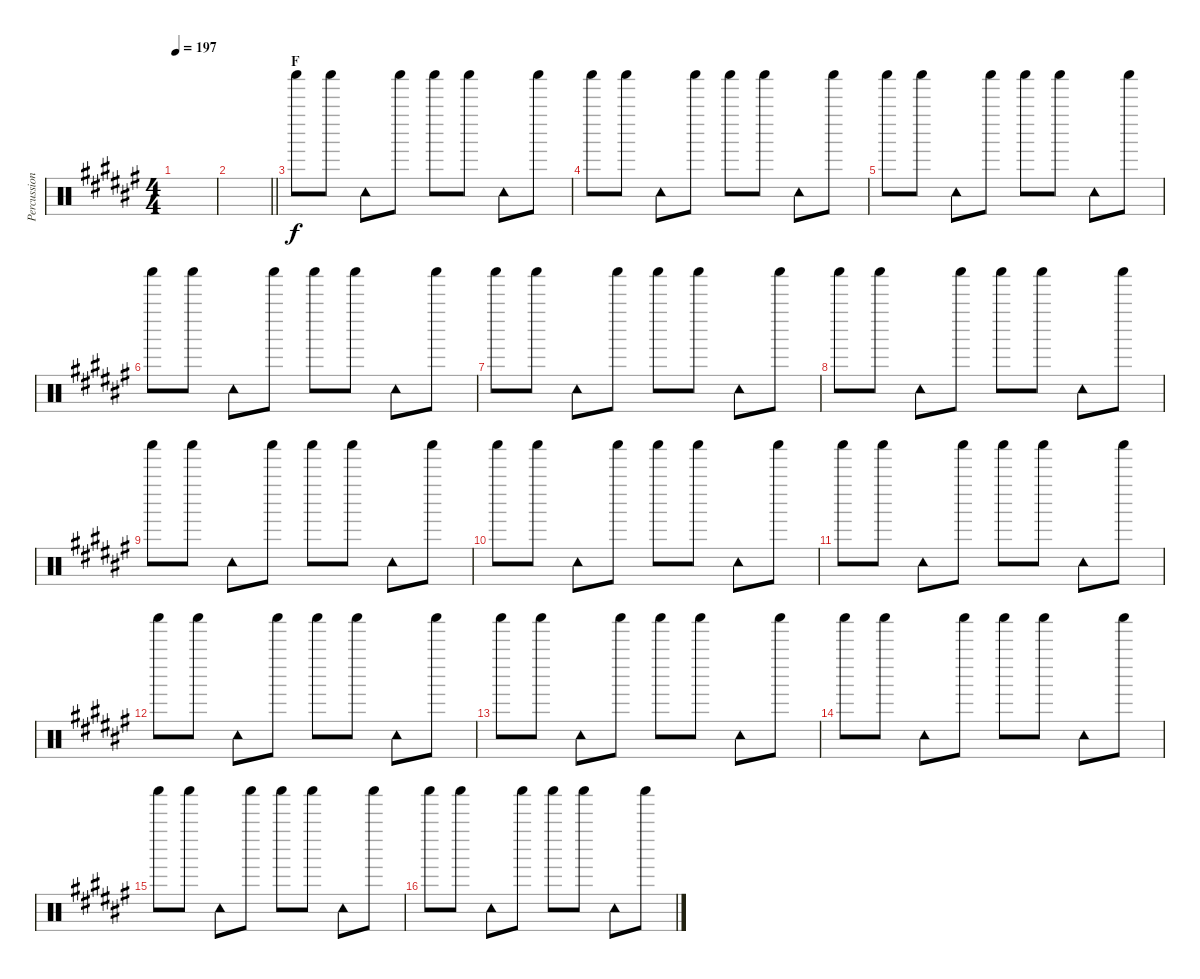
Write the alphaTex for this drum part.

\track ("Percussion (Tainaka Ritsu)" "Percussion") {instrument percussion}
\staff {score}
\articulation defaults
\ts (4 4)
\tempo 197
\clef neutral
\ks f#
|
\barLineRight lightlight
|
\section ("" "F")
"Shaker (hit)".8 "Shaker (hit)".8 "Tambourine (hit)".8 "Shaker (hit)".8 "Shaker (hit)".8 "Shaker (hit)".8 "Tambourine (hit)".8 "Shaker (hit)".8 |
"Shaker (hit)".8 "Shaker (hit)".8 "Tambourine (hit)".8 "Shaker (hit)".8 "Shaker (hit)".8 "Shaker (hit)".8 "Tambourine (hit)".8 "Shaker (hit)".8 |
"Shaker (hit)".8 "Shaker (hit)".8 "Tambourine (hit)".8 "Shaker (hit)".8 "Shaker (hit)".8 "Shaker (hit)".8 "Tambourine (hit)".8 "Shaker (hit)".8 |
"Shaker (hit)".8 "Shaker (hit)".8 "Tambourine (hit)".8 "Shaker (hit)".8 "Shaker (hit)".8 "Shaker (hit)".8 "Tambourine (hit)".8 "Shaker (hit)".8 |
"Shaker (hit)".8 "Shaker (hit)".8 "Tambourine (hit)".8 "Shaker (hit)".8 "Shaker (hit)".8 "Shaker (hit)".8 "Tambourine (hit)".8 "Shaker (hit)".8 |
"Shaker (hit)".8 "Shaker (hit)".8 "Tambourine (hit)".8 "Shaker (hit)".8 "Shaker (hit)".8 "Shaker (hit)".8 "Tambourine (hit)".8 "Shaker (hit)".8 |
"Shaker (hit)".8 "Shaker (hit)".8 "Tambourine (hit)".8 "Shaker (hit)".8 "Shaker (hit)".8 "Shaker (hit)".8 "Tambourine (hit)".8 "Shaker (hit)".8 |
"Shaker (hit)".8 "Shaker (hit)".8 "Tambourine (hit)".8 "Shaker (hit)".8 "Shaker (hit)".8 "Shaker (hit)".8 "Tambourine (hit)".8 "Shaker (hit)".8 |
"Shaker (hit)".8 "Shaker (hit)".8 "Tambourine (hit)".8 "Shaker (hit)".8 "Shaker (hit)".8 "Shaker (hit)".8 "Tambourine (hit)".8 "Shaker (hit)".8 |
"Shaker (hit)".8 "Shaker (hit)".8 "Tambourine (hit)".8 "Shaker (hit)".8 "Shaker (hit)".8 "Shaker (hit)".8 "Tambourine (hit)".8 "Shaker (hit)".8 |
"Shaker (hit)".8 "Shaker (hit)".8 "Tambourine (hit)".8 "Shaker (hit)".8 "Shaker (hit)".8 "Shaker (hit)".8 "Tambourine (hit)".8 "Shaker (hit)".8 |
"Shaker (hit)".8 "Shaker (hit)".8 "Tambourine (hit)".8 "Shaker (hit)".8 "Shaker (hit)".8 "Shaker (hit)".8 "Tambourine (hit)".8 "Shaker (hit)".8 |
"Shaker (hit)".8 "Shaker (hit)".8 "Tambourine (hit)".8 "Shaker (hit)".8 "Shaker (hit)".8 "Shaker (hit)".8 "Tambourine (hit)".8 "Shaker (hit)".8 |
"Shaker (hit)".8 "Shaker (hit)".8 "Tambourine (hit)".8 "Shaker (hit)".8 "Shaker (hit)".8 "Shaker (hit)".8 "Tambourine (hit)".8 "Shaker (hit)".8
